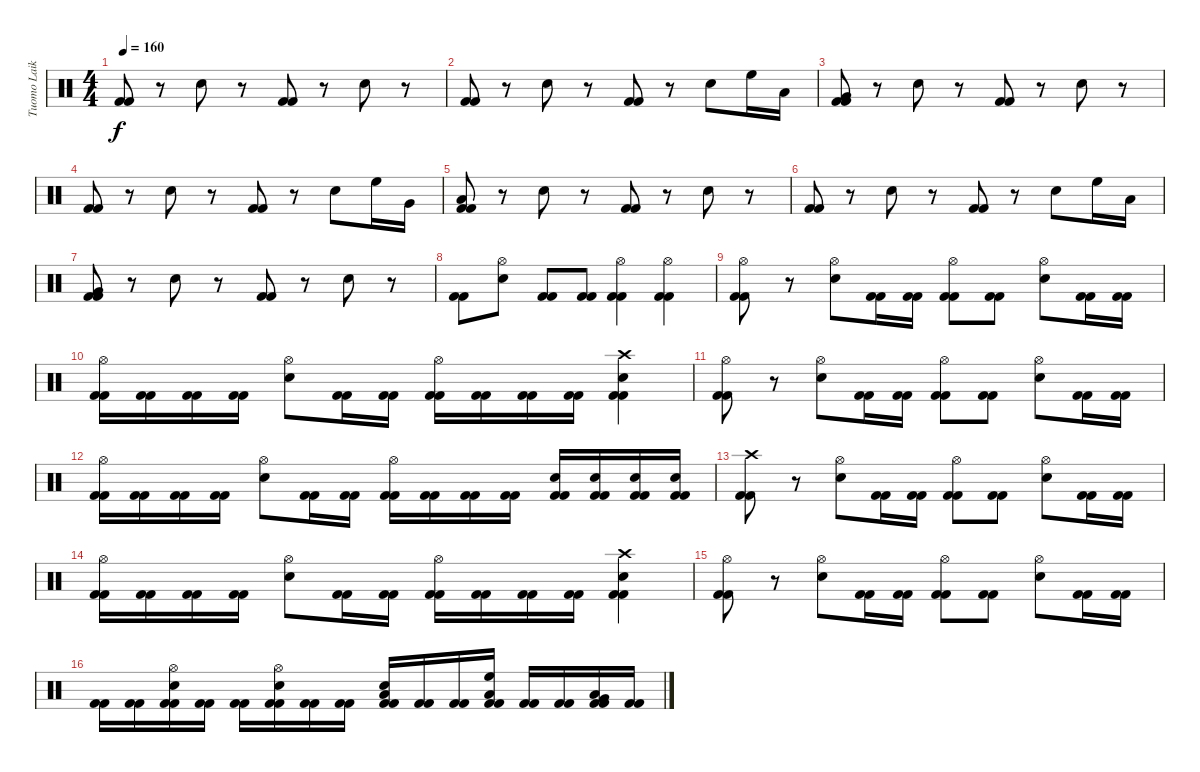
\track ("Tuomo Laikari" "Tuomo Laik") {instrument percussion}
\staff {score}
\articulation defaults
\ts (4 4)
\tempo 160
\clef neutral
\ks c
("Kick (hit) 2" "Kick (hit) 2").8{dy f} r.8 "Electric Snare (hit)".8 r.8 ("Kick (hit) 2" "Kick (hit) 2").8 r.8 "Electric Snare (hit)".8 r.8 |
("Kick (hit) 2" "Kick (hit) 2").8 r.8 "Electric Snare (hit)".8 r.8 ("Kick (hit) 2" "Kick (hit) 2").8 r.8 "Electric Snare (hit)".8 "High Floor Tom (hit)".16 "Low Tom (hit)".16 |
("Very Low Tom (hit)" "Kick (hit) 2" "Kick (hit) 2").8 r.8 "Electric Snare (hit)".8 r.8 ("Kick (hit) 2" "Kick (hit) 2").8 r.8 "Electric Snare (hit)".8 r.8 |
("Kick (hit) 2" "Kick (hit) 2").8 r.8 "Electric Snare (hit)".8 r.8 ("Kick (hit) 2" "Kick (hit) 2").8 r.8 "Electric Snare (hit)".8 "High Floor Tom (hit)".16 "Very Low Tom (hit)".16 |
("Low Floor Tom (hit)" "Kick (hit) 2" "Kick (hit) 2").8 r.8 "Electric Snare (hit)".8 r.8 ("Kick (hit) 2" "Kick (hit) 2").8 r.8 "Electric Snare (hit)".8 r.8 |
("Kick (hit) 2" "Kick (hit) 2").8 r.8 "Electric Snare (hit)".8 r.8 ("Kick (hit) 2" "Kick (hit) 2").8 r.8 "Electric Snare (hit)".8 "High Floor Tom (hit)".16 "Low Tom (hit)".16 |
("Very Low Tom (hit)" "Kick (hit) 2" "Kick (hit) 2").8 r.8 "Electric Snare (hit)".8 r.8 ("Kick (hit) 2" "Kick (hit) 2").8 r.8 "Electric Snare (hit)".8 r.8 |
("Kick (hit) 2" "Kick (hit) 2").8 ("Hi-Hat (open)" "Electric Snare (hit)").8 ("Kick (hit) 2" "Kick (hit) 2").8 ("Kick (hit) 2" "Kick (hit) 2").8 ("Hi-Hat (open)" "Kick (hit) 2" "Kick (hit) 2").4 ("Hi-Hat (open)" "Kick (hit) 2" "Kick (hit) 2").4 |
("Hi-Hat (open)" "Kick (hit) 2" "Kick (hit) 2").8 r.8 ("Hi-Hat (open)" "Electric Snare (hit)").8 ("Kick (hit) 2" "Kick (hit) 2").16 ("Kick (hit) 2" "Kick (hit) 2").16 ("Hi-Hat (open)" "Kick (hit) 2" "Kick (hit) 2").8 ("Kick (hit) 2" "Kick (hit) 2").8 ("Hi-Hat (open)" "Electric Snare (hit)").8 ("Kick (hit) 2" "Kick (hit) 2").16 ("Kick (hit) 2" "Kick (hit) 2").16 |
("Hi-Hat (open)" "Kick (hit) 2" "Kick (hit) 2").16 ("Kick (hit) 2" "Kick (hit) 2").16 ("Kick (hit) 2" "Kick (hit) 2").16 ("Kick (hit) 2" "Kick (hit) 2").16 ("Hi-Hat (open)" "Electric Snare (hit)").8 ("Kick (hit) 2" "Kick (hit) 2").16 ("Kick (hit) 2" "Kick (hit) 2").16 ("Hi-Hat (open)" "Kick (hit) 2" "Kick (hit) 2").16 ("Kick (hit) 2" "Kick (hit) 2").16 ("Kick (hit) 2" "Kick (hit) 2").16 ("Kick (hit) 2" "Kick (hit) 2").16 ("Crash high (hit)" "Electric Snare (hit)" "Kick (hit) 2" "Kick (hit) 2").4 |
("Hi-Hat (open)" "Kick (hit) 2" "Kick (hit) 2").8 r.8 ("Hi-Hat (open)" "Electric Snare (hit)").8 ("Kick (hit) 2" "Kick (hit) 2").16 ("Kick (hit) 2" "Kick (hit) 2").16 ("Hi-Hat (open)" "Kick (hit) 2" "Kick (hit) 2").8 ("Kick (hit) 2" "Kick (hit) 2").8 ("Hi-Hat (open)" "Electric Snare (hit)").8 ("Kick (hit) 2" "Kick (hit) 2").16 ("Kick (hit) 2" "Kick (hit) 2").16 |
("Hi-Hat (open)" "Kick (hit) 2" "Kick (hit) 2").16 ("Kick (hit) 2" "Kick (hit) 2").16 ("Kick (hit) 2" "Kick (hit) 2").16 ("Kick (hit) 2" "Kick (hit) 2").16 ("Hi-Hat (open)" "Electric Snare (hit)").8 ("Kick (hit) 2" "Kick (hit) 2").16 ("Kick (hit) 2" "Kick (hit) 2").16 ("Hi-Hat (open)" "Kick (hit) 2" "Kick (hit) 2").16 ("Kick (hit) 2" "Kick (hit) 2").16 ("Kick (hit) 2" "Kick (hit) 2").16 ("Kick (hit) 2" "Kick (hit) 2").16 ("Electric Snare (hit)" "Kick (hit) 2" "Kick (hit) 2").16 ("Electric Snare (hit)" "Kick (hit) 2" "Kick (hit) 2").16 ("Electric Snare (hit)" "Kick (hit) 2" "Kick (hit) 2").16 ("Electric Snare (hit)" "Kick (hit) 2" "Kick (hit) 2").16 |
("Crash high (hit)" "Kick (hit) 2" "Kick (hit) 2").8 r.8 ("Hi-Hat (open)" "Electric Snare (hit)").8 ("Kick (hit) 2" "Kick (hit) 2").16 ("Kick (hit) 2" "Kick (hit) 2").16 ("Hi-Hat (open)" "Kick (hit) 2" "Kick (hit) 2").8 ("Kick (hit) 2" "Kick (hit) 2").8 ("Hi-Hat (open)" "Electric Snare (hit)").8 ("Kick (hit) 2" "Kick (hit) 2").16 ("Kick (hit) 2" "Kick (hit) 2").16 |
("Hi-Hat (open)" "Kick (hit) 2" "Kick (hit) 2").16 ("Kick (hit) 2" "Kick (hit) 2").16 ("Kick (hit) 2" "Kick (hit) 2").16 ("Kick (hit) 2" "Kick (hit) 2").16 ("Hi-Hat (open)" "Electric Snare (hit)").8 ("Kick (hit) 2" "Kick (hit) 2").16 ("Kick (hit) 2" "Kick (hit) 2").16 ("Hi-Hat (open)" "Kick (hit) 2" "Kick (hit) 2").16 ("Kick (hit) 2" "Kick (hit) 2").16 ("Kick (hit) 2" "Kick (hit) 2").16 ("Kick (hit) 2" "Kick (hit) 2").16 ("Crash high (hit)" "Electric Snare (hit)" "Kick (hit) 2" "Kick (hit) 2").4 |
("Hi-Hat (open)" "Kick (hit) 2" "Kick (hit) 2").8 r.8 ("Hi-Hat (open)" "Electric Snare (hit)").8 ("Kick (hit) 2" "Kick (hit) 2").16 ("Kick (hit) 2" "Kick (hit) 2").16 ("Hi-Hat (open)" "Kick (hit) 2" "Kick (hit) 2").8 ("Kick (hit) 2" "Kick (hit) 2").8 ("Hi-Hat (open)" "Electric Snare (hit)").8 ("Kick (hit) 2" "Kick (hit) 2").16 ("Kick (hit) 2" "Kick (hit) 2").16 |
("Kick (hit) 2" "Kick (hit) 2").16 ("Kick (hit) 2" "Kick (hit) 2").16 ("Hi-Hat (open)" "Electric Snare (hit)" "Kick (hit) 2" "Kick (hit) 2").16 ("Kick (hit) 2" "Kick (hit) 2").16 ("Kick (hit) 2" "Kick (hit) 2").16 ("Hi-Hat (open)" "Electric Snare (hit)" "Kick (hit) 2" "Kick (hit) 2").16 ("Kick (hit) 2" "Kick (hit) 2").16 ("Kick (hit) 2" "Kick (hit) 2").16 ("Low Tom (hit)" "Electric Snare (hit)" "Kick (hit) 2" "Kick (hit) 2").16 ("Kick (hit) 2" "Kick (hit) 2").16 ("Kick (hit) 2" "Kick (hit) 2").16 ("High Floor Tom (hit)" "Low Tom (hit)" "Kick (hit) 2" "Kick (hit) 2").16 ("Kick (hit) 2" "Kick (hit) 2").16 ("Kick (hit) 2" "Kick (hit) 2").16 ("Very Low Tom (hit)" "Low Floor Tom (hit)" "Kick (hit) 2" "Kick (hit) 2").16 ("Kick (hit) 2" "Kick (hit) 2").16
